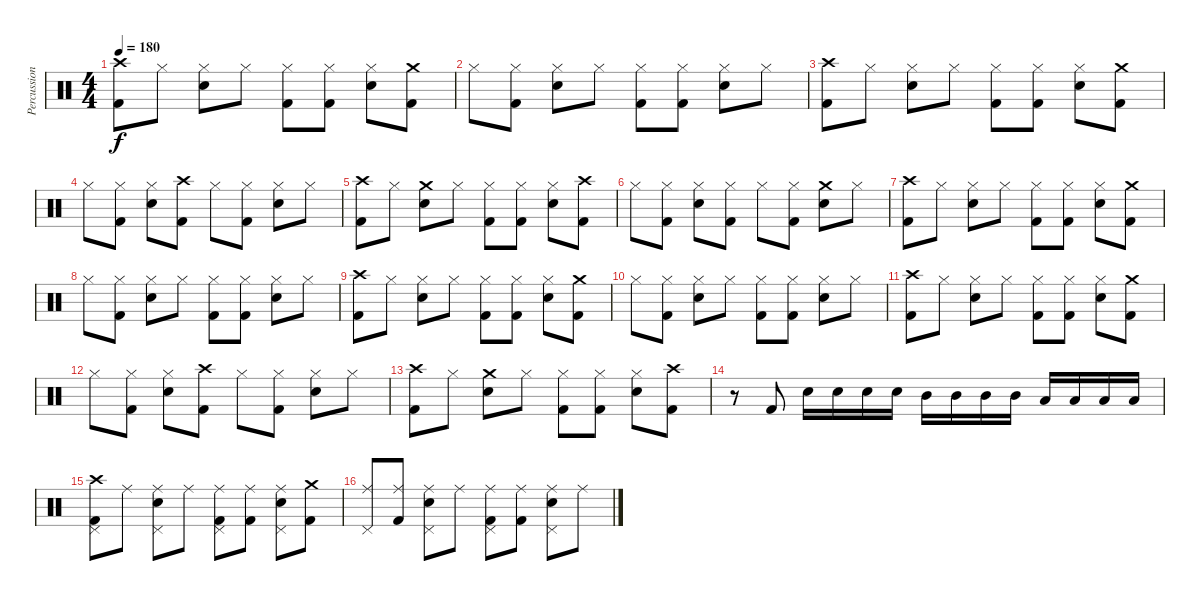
\track ("Percussion" "Percussion") {instrument percussion}
\staff {score}
\articulation defaults
\ts (4 4)
\tempo 180
\clef neutral
\ks c
("Crash high (hit)" "Kick (hit) 2").8{dy f} "Hi-Hat (closed)".8 ("Hi-Hat (closed)" "Electric Snare (hit)").8 "Hi-Hat (closed)".8 ("Hi-Hat (closed)" "Kick (hit) 2").8 ("Hi-Hat (closed)" "Kick (hit) 2").8 ("Hi-Hat (closed)" "Electric Snare (hit)").8 ("Crash medium (hit)" "Kick (hit) 2").8 |
"Hi-Hat (closed)".8 ("Hi-Hat (closed)" "Kick (hit) 2").8 ("Hi-Hat (closed)" "Electric Snare (hit)").8 "Hi-Hat (closed)".8 ("Hi-Hat (closed)" "Kick (hit) 2").8 ("Hi-Hat (closed)" "Kick (hit) 2").8 ("Hi-Hat (closed)" "Electric Snare (hit)").8 "Hi-Hat (closed)".8 |
("Crash high (hit)" "Kick (hit) 2").8 "Hi-Hat (closed)".8 ("Hi-Hat (closed)" "Electric Snare (hit)").8 "Hi-Hat (closed)".8 ("Hi-Hat (closed)" "Kick (hit) 2").8 ("Hi-Hat (closed)" "Kick (hit) 2").8 ("Hi-Hat (closed)" "Electric Snare (hit)").8 ("Crash medium (hit)" "Kick (hit) 2").8 |
"Hi-Hat (closed)".8 ("Hi-Hat (closed)" "Kick (hit) 2").8 ("Hi-Hat (closed)" "Electric Snare (hit)").8 ("Crash high (hit)" "Kick (hit) 2").8 "Hi-Hat (closed)".8 ("Hi-Hat (closed)" "Kick (hit) 2").8 ("Hi-Hat (closed)" "Electric Snare (hit)").8 "Hi-Hat (closed)".8 |
("Crash high (hit)" "Kick (hit) 2").8 "Hi-Hat (closed)".8 ("Crash medium (hit)" "Electric Snare (hit)").8 "Hi-Hat (closed)".8 ("Hi-Hat (closed)" "Kick (hit) 2").8 ("Hi-Hat (closed)" "Kick (hit) 2").8 ("Hi-Hat (closed)" "Electric Snare (hit)").8 ("Crash high (hit)" "Kick (hit) 2").8 |
"Hi-Hat (closed)".8 ("Hi-Hat (closed)" "Kick (hit) 2").8 ("Hi-Hat (closed)" "Electric Snare (hit)").8 ("Hi-Hat (closed)" "Kick (hit) 2").8 "Hi-Hat (closed)".8 ("Hi-Hat (closed)" "Kick (hit) 2").8 ("Crash medium (hit)" "Electric Snare (hit)").8 "Hi-Hat (closed)".8 |
("Crash high (hit)" "Kick (hit) 2").8 "Hi-Hat (closed)".8 ("Hi-Hat (closed)" "Electric Snare (hit)").8 "Hi-Hat (closed)".8 ("Hi-Hat (closed)" "Kick (hit) 2").8 ("Hi-Hat (closed)" "Kick (hit) 2").8 ("Hi-Hat (closed)" "Electric Snare (hit)").8 ("Crash medium (hit)" "Kick (hit) 2").8 |
"Hi-Hat (closed)".8 ("Hi-Hat (closed)" "Kick (hit) 2").8 ("Hi-Hat (closed)" "Electric Snare (hit)").8 "Hi-Hat (closed)".8 ("Hi-Hat (closed)" "Kick (hit) 2").8 ("Hi-Hat (closed)" "Kick (hit) 2").8 ("Hi-Hat (closed)" "Electric Snare (hit)").8 "Hi-Hat (closed)".8 |
("Crash high (hit)" "Kick (hit) 2").8 "Hi-Hat (closed)".8 ("Hi-Hat (closed)" "Electric Snare (hit)").8 "Hi-Hat (closed)".8 ("Hi-Hat (closed)" "Kick (hit) 2").8 ("Hi-Hat (closed)" "Kick (hit) 2").8 ("Hi-Hat (closed)" "Electric Snare (hit)").8 ("Crash medium (hit)" "Kick (hit) 2").8 |
"Hi-Hat (closed)".8 ("Hi-Hat (closed)" "Kick (hit) 2").8 ("Hi-Hat (closed)" "Electric Snare (hit)").8 "Hi-Hat (closed)".8 ("Hi-Hat (closed)" "Kick (hit) 2").8 ("Hi-Hat (closed)" "Kick (hit) 2").8 ("Hi-Hat (closed)" "Electric Snare (hit)").8 "Hi-Hat (closed)".8 |
("Crash high (hit)" "Kick (hit) 2").8 "Hi-Hat (closed)".8 ("Hi-Hat (closed)" "Electric Snare (hit)").8 "Hi-Hat (closed)".8 ("Hi-Hat (closed)" "Kick (hit) 2").8 ("Hi-Hat (closed)" "Kick (hit) 2").8 ("Hi-Hat (closed)" "Electric Snare (hit)").8 ("Crash medium (hit)" "Kick (hit) 2").8 |
"Hi-Hat (closed)".8 ("Hi-Hat (closed)" "Kick (hit) 2").8 ("Hi-Hat (closed)" "Electric Snare (hit)").8 ("Crash high (hit)" "Kick (hit) 2").8 "Hi-Hat (closed)".8 ("Hi-Hat (closed)" "Kick (hit) 2").8 ("Hi-Hat (closed)" "Electric Snare (hit)").8 "Hi-Hat (closed)".8 |
("Crash high (hit)" "Kick (hit) 2").8 "Hi-Hat (closed)".8 ("Crash medium (hit)" "Electric Snare (hit)").8 "Hi-Hat (closed)".8 ("Hi-Hat (closed)" "Kick (hit) 2").8 ("Hi-Hat (closed)" "Kick (hit) 2").8 ("Hi-Hat (closed)" "Electric Snare (hit)").8 ("Crash high (hit)" "Kick (hit) 2").8 |
r.8 "Kick (hit) 2".8 "Electric Snare (hit)".16 "Electric Snare (hit)".16 "Electric Snare (hit)".16 "Electric Snare (hit)".16 "Mid Tom (hit)".16 "Mid Tom (hit)".16 "Mid Tom (hit)".16 "Mid Tom (hit)".16 "Low Tom (hit)".16 "Low Tom (hit)".16 "Low Tom (hit)".16 "Low Tom (hit)".16 |
("Crash high (hit)" "Pedal Hi-Hat (hit)" "Kick (hit) 2").8 "Ride (middle)".8 ("Ride (middle)" "Pedal Hi-Hat (hit)" "Electric Snare (hit)").8 "Ride (middle)".8 ("Ride (middle)" "Pedal Hi-Hat (hit)" "Kick (hit) 2").8 ("Ride (middle)" "Kick (hit) 2").8 ("Ride (middle)" "Pedal Hi-Hat (hit)" "Electric Snare (hit)").8 ("Crash medium (hit)" "Kick (hit) 2").8 |
("Ride (middle)" "Pedal Hi-Hat (hit)").8 ("Ride (middle)" "Kick (hit) 2").8 ("Ride (middle)" "Pedal Hi-Hat (hit)" "Electric Snare (hit)").8 "Ride (middle)".8 ("Ride (middle)" "Pedal Hi-Hat (hit)" "Kick (hit) 2").8 ("Ride (middle)" "Kick (hit) 2").8 ("Ride (middle)" "Pedal Hi-Hat (hit)" "Electric Snare (hit)").8 "Ride (middle)".8
